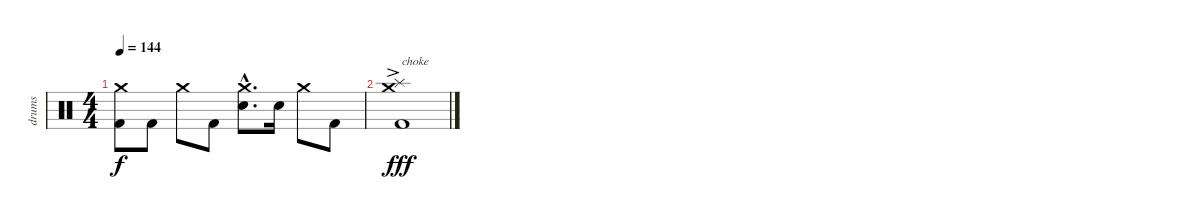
\track ("drums" "drums") {instrument percussion}
\staff {score}
\articulation defaults
\ts (4 4)
\tempo 144
\clef neutral
\ks c
("Crash medium (hit)" "Kick (hit) 2").8{dy f} "Kick (hit) 2".8 "Crash medium (hit)".8 "Kick (hit) 2".8 ("Crash medium (hit)"{hac} "Snare (hit) 2"{hac}).8{d} "Snare (hit) 2".16 "Crash medium (hit)".8 "Kick (hit) 2".8 |
("Crash medium (hit)"{ac} "Splash (hit)" "Kick (hit) 2").1{txt "choke" dy fff}
